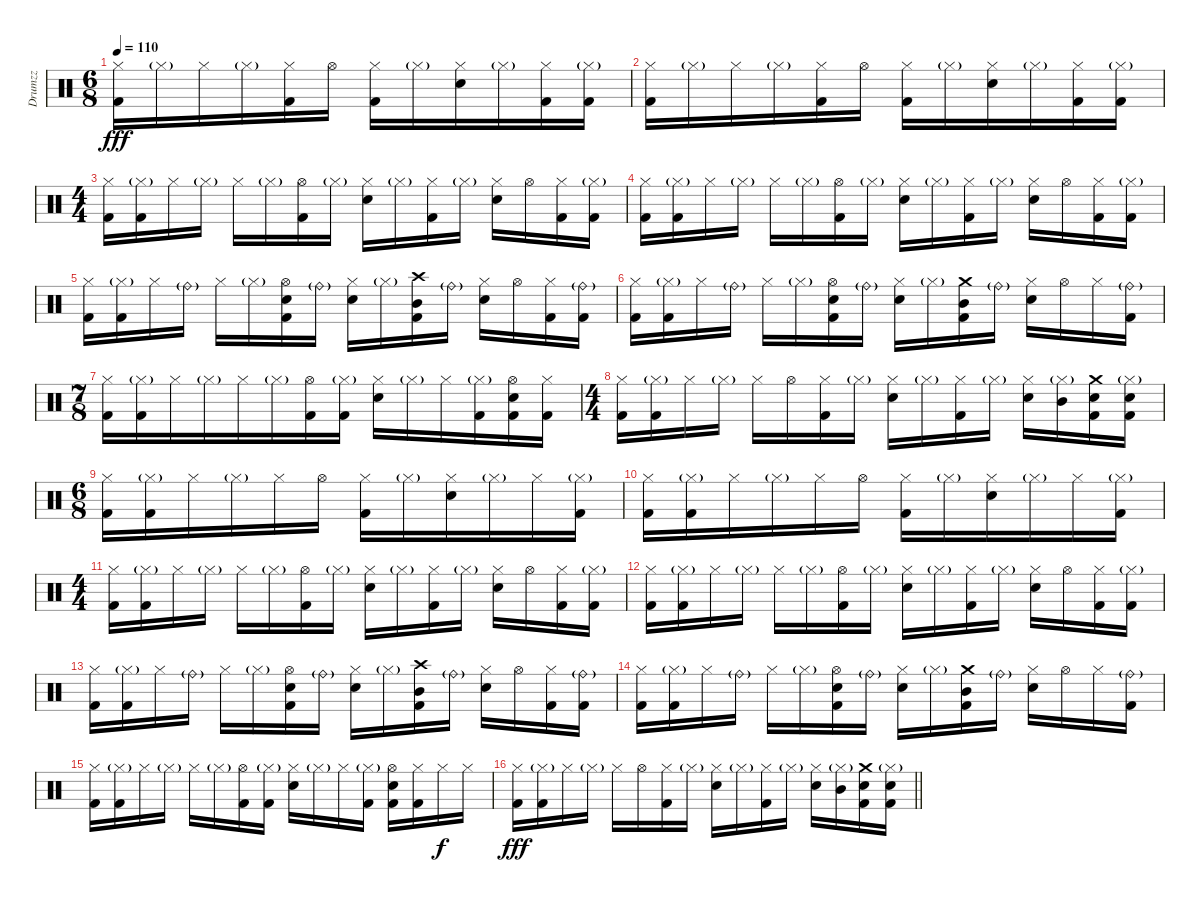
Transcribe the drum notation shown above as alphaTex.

\track ("Drumzz" "Drumzz") {instrument percussion}
\staff {score}
\articulation defaults
\ts (6 8)
\tempo 110
\clef neutral
\ks c
("Hi-Hat (closed)" "Kick (hit) 2").16{dy fff volume 12} "Hi-Hat (closed)"{g}.16 "Hi-Hat (closed)".16 "Hi-Hat (closed)"{g}.16 ("Hi-Hat (closed)" "Kick (hit) 2").16 "Hi-Hat (open)".16 ("Hi-Hat (closed)" "Kick (hit) 2").16 "Hi-Hat (closed)"{g}.16 ("Hi-Hat (closed)" "Snare (hit) 2").16 "Hi-Hat (closed)"{g}.16 ("Hi-Hat (closed)" "Kick (hit) 2").16 ("Hi-Hat (closed)"{g} "Kick (hit) 2").16 |
("Hi-Hat (closed)" "Kick (hit) 2").16 "Hi-Hat (closed)"{g}.16 "Hi-Hat (closed)".16 "Hi-Hat (closed)"{g}.16 ("Hi-Hat (closed)" "Kick (hit) 2").16 "Hi-Hat (open)".16 ("Hi-Hat (closed)" "Kick (hit) 2").16 "Hi-Hat (closed)"{g}.16 ("Hi-Hat (closed)" "Snare (hit) 2").16 "Hi-Hat (closed)"{g}.16 ("Hi-Hat (closed)" "Kick (hit) 2").16 ("Hi-Hat (closed)"{g} "Kick (hit) 2").16 |
\ts (4 4)
("Hi-Hat (closed)" "Kick (hit) 2").16 ("Hi-Hat (closed)"{g} "Kick (hit) 2").16 "Hi-Hat (closed)".16 "Hi-Hat (closed)"{g}.16 "Hi-Hat (closed)".16 "Hi-Hat (closed)"{g}.16 ("Hi-Hat (open)" "Kick (hit) 2").16 "Hi-Hat (closed)"{g}.16 ("Hi-Hat (closed)" "Snare (hit) 2").16 "Hi-Hat (closed)"{g}.16 ("Hi-Hat (closed)" "Kick (hit) 2").16 "Hi-Hat (closed)"{g}.16 ("Hi-Hat (closed)" "Snare (hit) 2").16 "Hi-Hat (open)".16 ("Hi-Hat (closed)" "Kick (hit) 2").16 ("Hi-Hat (closed)"{g} "Kick (hit) 2").16 |
("Hi-Hat (closed)" "Kick (hit) 2").16 ("Hi-Hat (closed)"{g} "Kick (hit) 2").16 "Hi-Hat (closed)".16 "Hi-Hat (closed)"{g}.16 "Hi-Hat (closed)".16 "Hi-Hat (closed)"{g}.16 ("Hi-Hat (open)" "Kick (hit) 2").16 "Hi-Hat (closed)"{g}.16 ("Hi-Hat (closed)" "Snare (hit) 2").16 "Hi-Hat (closed)"{g}.16 ("Hi-Hat (closed)" "Kick (hit) 2").16 "Hi-Hat (closed)"{g}.16 ("Hi-Hat (closed)" "Snare (hit) 2").16 "Hi-Hat (open)".16 ("Hi-Hat (closed)" "Kick (hit) 2").16 ("Hi-Hat (closed)"{g} "Kick (hit) 2").16 |
("Hi-Hat (closed)" "Kick (hit) 2").16 ("Hi-Hat (closed)"{g} "Kick (hit) 2").16 "Hi-Hat (closed)".16 "Ride (bell)"{g}.16 "Hi-Hat (closed)".16 "Hi-Hat (closed)"{g}.16 ("Hi-Hat (open)" "Snare (hit) 2" "Kick (hit) 2").16 "Ride (bell)"{g}.16 ("Hi-Hat (closed)" "Snare (hit) 2").16 "Hi-Hat (closed)"{g}.16 ("Crash high (hit)" "Mid Tom (hit)" "Kick (hit) 2").16 "Ride (bell)"{g}.16 ("Hi-Hat (closed)" "Snare (hit) 2").16 "Hi-Hat (open)".16 ("Hi-Hat (closed)" "Kick (hit) 2").16 ("Ride (bell)"{g} "Kick (hit) 2").16 |
("Hi-Hat (closed)" "Kick (hit) 2").16 ("Hi-Hat (closed)"{g} "Kick (hit) 2").16 "Hi-Hat (closed)".16 "Ride (bell)"{g}.16 "Hi-Hat (closed)".16 "Hi-Hat (closed)"{g}.16 ("Hi-Hat (open)" "Snare (hit) 2" "Kick (hit) 2").16 "Ride (bell)"{g}.16 ("Hi-Hat (closed)" "Snare (hit) 2").16 "Hi-Hat (closed)"{g}.16 ("Crash medium (hit)" "Mid Tom (hit)" "Kick (hit) 2").16 "Ride (bell)"{g}.16 ("Hi-Hat (closed)" "Snare (hit) 2").16 "Hi-Hat (open)".16 "Hi-Hat (closed)".16 ("Ride (bell)"{g} "Kick (hit) 2").16 |
\ts (7 8)
("Hi-Hat (closed)" "Kick (hit) 2").16 ("Hi-Hat (closed)"{g} "Kick (hit) 2").16 "Hi-Hat (closed)".16 "Hi-Hat (closed)"{g}.16 "Hi-Hat (closed)".16 "Hi-Hat (closed)"{g}.16 ("Hi-Hat (open)" "Kick (hit) 2").16 ("Hi-Hat (closed)"{g} "Kick (hit) 2").16 ("Hi-Hat (closed)" "Snare (hit) 2").16 "Hi-Hat (closed)"{g}.16 "Hi-Hat (closed)".16 ("Hi-Hat (closed)"{g} "Kick (hit) 2").16 ("Hi-Hat (open)" "Snare (hit) 2" "Kick (hit) 2").16 ("Hi-Hat (closed)" "Kick (hit) 2").16 |
\ts (4 4)
("Hi-Hat (closed)" "Kick (hit) 2").16 ("Hi-Hat (closed)"{g} "Kick (hit) 2").16 "Hi-Hat (closed)".16 "Hi-Hat (closed)"{g}.16 "Hi-Hat (closed)".16 "Hi-Hat (open)".16 ("Hi-Hat (closed)" "Kick (hit) 2").16 "Hi-Hat (closed)"{g}.16 ("Hi-Hat (closed)" "Snare (hit) 2").16 "Hi-Hat (closed)"{g}.16 ("Hi-Hat (closed)" "Kick (hit) 2").16 "Hi-Hat (closed)"{g}.16 ("Hi-Hat (closed)" "Snare (hit) 2").16 ("Hi-Hat (closed)"{g} "Mid Tom (hit)").16 ("Crash medium (hit)" "Snare (hit) 2" "Kick (hit) 2").16 ("Hi-Hat (closed)"{g} "Snare (hit) 2" "Kick (hit) 2").16 |
\ts (6 8)
("Hi-Hat (closed)" "Kick (hit) 2").16{volume 11} ("Hi-Hat (closed)"{g} "Kick (hit) 2").16 "Hi-Hat (closed)".16 "Hi-Hat (closed)"{g}.16 "Hi-Hat (closed)".16 "Hi-Hat (open)".16 ("Hi-Hat (closed)" "Kick (hit) 2").16 "Hi-Hat (closed)"{g}.16 ("Hi-Hat (closed)" "Snare (hit) 2").16 "Hi-Hat (closed)"{g}.16 "Hi-Hat (closed)".16 ("Hi-Hat (closed)"{g} "Kick (hit) 2").16 |
("Hi-Hat (closed)" "Kick (hit) 2").16 ("Hi-Hat (closed)"{g} "Kick (hit) 2").16 "Hi-Hat (closed)".16 "Hi-Hat (closed)"{g}.16 "Hi-Hat (closed)".16 "Hi-Hat (open)".16 ("Hi-Hat (closed)" "Kick (hit) 2").16 "Hi-Hat (closed)"{g}.16 ("Hi-Hat (closed)" "Snare (hit) 2").16 "Hi-Hat (closed)"{g}.16 "Hi-Hat (closed)".16 ("Hi-Hat (closed)"{g} "Kick (hit) 2").16 |
\ts (4 4)
("Hi-Hat (closed)" "Kick (hit) 2").16 ("Hi-Hat (closed)"{g} "Kick (hit) 2").16 "Hi-Hat (closed)".16 "Hi-Hat (closed)"{g}.16 "Hi-Hat (closed)".16 "Hi-Hat (closed)"{g}.16 ("Hi-Hat (open)" "Kick (hit) 2").16 "Hi-Hat (closed)"{g}.16 ("Hi-Hat (closed)" "Snare (hit) 2").16 "Hi-Hat (closed)"{g}.16 ("Hi-Hat (closed)" "Kick (hit) 2").16 "Hi-Hat (closed)"{g}.16 ("Hi-Hat (closed)" "Snare (hit) 2").16 "Hi-Hat (open)".16 ("Hi-Hat (closed)" "Kick (hit) 2").16 ("Hi-Hat (closed)"{g} "Kick (hit) 2").16 |
("Hi-Hat (closed)" "Kick (hit) 2").16 ("Hi-Hat (closed)"{g} "Kick (hit) 2").16 "Hi-Hat (closed)".16 "Hi-Hat (closed)"{g}.16 "Hi-Hat (closed)".16 "Hi-Hat (closed)"{g}.16 ("Hi-Hat (open)" "Kick (hit) 2").16 "Hi-Hat (closed)"{g}.16 ("Hi-Hat (closed)" "Snare (hit) 2").16 "Hi-Hat (closed)"{g}.16 ("Hi-Hat (closed)" "Kick (hit) 2").16 "Hi-Hat (closed)"{g}.16 ("Hi-Hat (closed)" "Snare (hit) 2").16 "Hi-Hat (open)".16 ("Hi-Hat (closed)" "Kick (hit) 2").16 ("Hi-Hat (closed)"{g} "Kick (hit) 2").16 |
("Hi-Hat (closed)" "Kick (hit) 2").16 ("Hi-Hat (closed)"{g} "Kick (hit) 2").16 "Hi-Hat (closed)".16 "Ride (bell)"{g}.16 "Hi-Hat (closed)".16 "Hi-Hat (closed)"{g}.16 ("Hi-Hat (open)" "Snare (hit) 2" "Kick (hit) 2").16 "Ride (bell)"{g}.16 ("Hi-Hat (closed)" "Snare (hit) 2").16 "Hi-Hat (closed)"{g}.16 ("Crash high (hit)" "Mid Tom (hit)" "Kick (hit) 2").16 "Ride (bell)"{g}.16 ("Hi-Hat (closed)" "Snare (hit) 2").16 "Hi-Hat (open)".16 ("Hi-Hat (closed)" "Kick (hit) 2").16 ("Ride (bell)"{g} "Kick (hit) 2").16 |
("Hi-Hat (closed)" "Kick (hit) 2").16 ("Hi-Hat (closed)"{g} "Kick (hit) 2").16 "Hi-Hat (closed)".16 "Ride (bell)"{g}.16 "Hi-Hat (closed)".16 "Hi-Hat (closed)"{g}.16 ("Hi-Hat (open)" "Snare (hit) 2" "Kick (hit) 2").16 "Ride (bell)"{g}.16 ("Hi-Hat (closed)" "Snare (hit) 2").16 "Hi-Hat (closed)"{g}.16 ("Crash medium (hit)" "Mid Tom (hit)" "Kick (hit) 2").16 "Ride (bell)"{g}.16 ("Hi-Hat (closed)" "Snare (hit) 2").16 "Hi-Hat (open)".16 "Hi-Hat (closed)".16 ("Ride (bell)"{g} "Kick (hit) 2").16 |
("Hi-Hat (closed)" "Kick (hit) 2").16 ("Hi-Hat (closed)"{g} "Kick (hit) 2").16 "Hi-Hat (closed)".16 "Hi-Hat (closed)"{g}.16 "Hi-Hat (closed)".16 "Hi-Hat (closed)"{g}.16 ("Hi-Hat (open)" "Kick (hit) 2").16 ("Hi-Hat (closed)"{g} "Kick (hit) 2").16 ("Hi-Hat (closed)" "Snare (hit) 2").16 "Hi-Hat (closed)"{g}.16 "Hi-Hat (closed)".16 ("Hi-Hat (closed)"{g} "Kick (hit) 2").16 ("Hi-Hat (open)" "Snare (hit) 2" "Kick (hit) 2").16 ("Hi-Hat (closed)" "Kick (hit) 2").16 "Hi-Hat (closed)".16{dy f} "Hi-Hat (closed)".16 |
\barLineRight lightlight
("Hi-Hat (closed)" "Kick (hit) 2").16{dy fff} ("Hi-Hat (closed)"{g} "Kick (hit) 2").16 "Hi-Hat (closed)".16 "Hi-Hat (closed)"{g}.16 "Hi-Hat (closed)".16 "Hi-Hat (open)".16 ("Hi-Hat (closed)" "Kick (hit) 2").16 "Hi-Hat (closed)"{g}.16 ("Hi-Hat (closed)" "Snare (hit) 2").16 "Hi-Hat (closed)"{g}.16 ("Hi-Hat (closed)" "Kick (hit) 2").16 "Hi-Hat (closed)"{g}.16 ("Hi-Hat (closed)" "Snare (hit) 2").16 ("Hi-Hat (closed)"{g} "Mid Tom (hit)").16 ("Crash medium (hit)" "Snare (hit) 2" "Kick (hit) 2").16 ("Hi-Hat (closed)"{g} "Snare (hit) 2" "Kick (hit) 2").16
